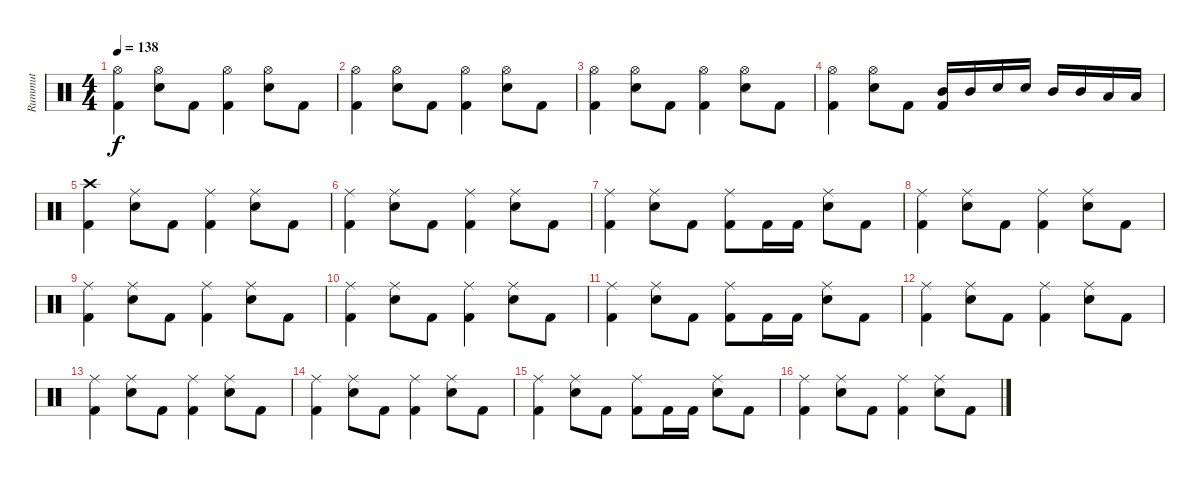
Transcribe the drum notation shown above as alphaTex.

\track ("Rummut" "Rummut") {instrument percussion}
\staff {score}
\articulation defaults
\ts (4 4)
\tempo 138
\clef neutral
\ks c
("Hi-Hat (open)" "Kick (hit) 2").4{dy f} ("Hi-Hat (open)" "Snare (hit) 2").8 "Kick (hit) 2".8 ("Hi-Hat (open)" "Kick (hit) 2").4 ("Hi-Hat (open)" "Snare (hit) 2").8 "Kick (hit) 2".8 |
("Hi-Hat (open)" "Kick (hit) 2").4 ("Hi-Hat (open)" "Snare (hit) 2").8 "Kick (hit) 2".8 ("Hi-Hat (open)" "Kick (hit) 2").4 ("Hi-Hat (open)" "Snare (hit) 2").8 "Kick (hit) 2".8 |
("Hi-Hat (open)" "Kick (hit) 2").4 ("Hi-Hat (open)" "Snare (hit) 2").8 "Kick (hit) 2".8 ("Hi-Hat (open)" "Kick (hit) 2").4 ("Hi-Hat (open)" "Snare (hit) 2").8 "Kick (hit) 2".8 |
("Hi-Hat (open)" "Kick (hit) 2").4 ("Hi-Hat (open)" "Snare (hit) 2").8 "Kick (hit) 2".8 ("Mid Tom (hit)" "Kick (hit) 2").16 "Mid Tom (hit)".16 "Snare (hit) 2".16 "Snare (hit) 2".16 "Mid Tom (hit)".16 "Mid Tom (hit)".16 "Low Tom (hit)".16 "Low Tom (hit)".16 |
("Crash high (hit)" "Kick (hit) 2").4 ("Ride (middle)" "Snare (hit) 2").8 "Kick (hit) 2".8 ("Ride (middle)" "Kick (hit) 2").4 ("Ride (middle)" "Snare (hit) 2").8 "Kick (hit) 2".8 |
("Ride (middle)" "Kick (hit) 2").4 ("Ride (middle)" "Snare (hit) 2").8 "Kick (hit) 2".8 ("Ride (middle)" "Kick (hit) 2").4 ("Ride (middle)" "Snare (hit) 2").8 "Kick (hit) 2".8 |
("Ride (middle)" "Kick (hit) 2").4 ("Ride (middle)" "Snare (hit) 2").8 "Kick (hit) 2".8 ("Ride (middle)" "Kick (hit) 2").8 "Kick (hit) 2".16 "Kick (hit) 2".16 ("Ride (middle)" "Snare (hit) 2").8 "Kick (hit) 2".8 |
("Ride (middle)" "Kick (hit) 2").4 ("Ride (middle)" "Snare (hit) 2").8 "Kick (hit) 2".8 ("Ride (middle)" "Kick (hit) 2").4 ("Ride (middle)" "Snare (hit) 2").8 "Kick (hit) 2".8 |
("Ride (middle)" "Kick (hit) 2").4 ("Ride (middle)" "Snare (hit) 2").8 "Kick (hit) 2".8 ("Ride (middle)" "Kick (hit) 2").4 ("Ride (middle)" "Snare (hit) 2").8 "Kick (hit) 2".8 |
("Ride (middle)" "Kick (hit) 2").4 ("Ride (middle)" "Snare (hit) 2").8 "Kick (hit) 2".8 ("Ride (middle)" "Kick (hit) 2").4 ("Ride (middle)" "Snare (hit) 2").8 "Kick (hit) 2".8 |
("Ride (middle)" "Kick (hit) 2").4 ("Ride (middle)" "Snare (hit) 2").8 "Kick (hit) 2".8 ("Ride (middle)" "Kick (hit) 2").8 "Kick (hit) 2".16 "Kick (hit) 2".16 ("Ride (middle)" "Snare (hit) 2").8 "Kick (hit) 2".8 |
("Ride (middle)" "Kick (hit) 2").4 ("Ride (middle)" "Snare (hit) 2").8 "Kick (hit) 2".8 ("Ride (middle)" "Kick (hit) 2").4 ("Ride (middle)" "Snare (hit) 2").8 "Kick (hit) 2".8 |
("Ride (middle)" "Kick (hit) 2").4 ("Ride (middle)" "Snare (hit) 2").8 "Kick (hit) 2".8 ("Ride (middle)" "Kick (hit) 2").4 ("Ride (middle)" "Snare (hit) 2").8 "Kick (hit) 2".8 |
("Ride (middle)" "Kick (hit) 2").4 ("Ride (middle)" "Snare (hit) 2").8 "Kick (hit) 2".8 ("Ride (middle)" "Kick (hit) 2").4 ("Ride (middle)" "Snare (hit) 2").8 "Kick (hit) 2".8 |
("Ride (middle)" "Kick (hit) 2").4 ("Ride (middle)" "Snare (hit) 2").8 "Kick (hit) 2".8 ("Ride (middle)" "Kick (hit) 2").8 "Kick (hit) 2".16 "Kick (hit) 2".16 ("Ride (middle)" "Snare (hit) 2").8 "Kick (hit) 2".8 |
("Ride (middle)" "Kick (hit) 2").4 ("Ride (middle)" "Snare (hit) 2").8 "Kick (hit) 2".8 ("Ride (middle)" "Kick (hit) 2").4 ("Ride (middle)" "Snare (hit) 2").8 "Kick (hit) 2".8
